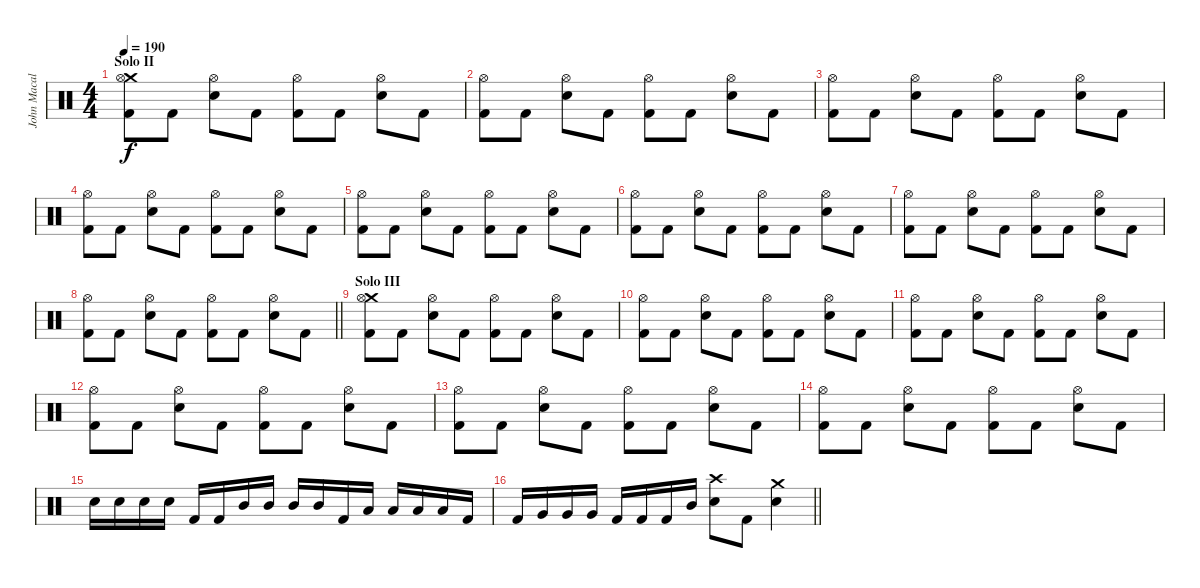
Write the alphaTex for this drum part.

\track ("John Macaluso" "John Macal") {instrument percussion}
\staff {score}
\articulation defaults
\ts (4 4)
\section ("" "Solo II")
\tempo 190
\clef neutral
\ks c
("Crash medium (hit)" "Hi-Hat (open)" "Kick (hit) 2").8{dy f} "Kick (hit) 2".8 ("Hi-Hat (open)" "Snare (hit) 2").8 "Kick (hit) 2".8 ("Hi-Hat (open)" "Kick (hit) 2").8 "Kick (hit) 2".8 ("Hi-Hat (open)" "Snare (hit) 2").8 "Kick (hit) 2".8 |
("Hi-Hat (open)" "Kick (hit) 2").8 "Kick (hit) 2".8 ("Hi-Hat (open)" "Snare (hit) 2").8 "Kick (hit) 2".8 ("Hi-Hat (open)" "Kick (hit) 2").8 "Kick (hit) 2".8 ("Hi-Hat (open)" "Snare (hit) 2").8 "Kick (hit) 2".8 |
("Hi-Hat (open)" "Kick (hit) 2").8 "Kick (hit) 2".8 ("Hi-Hat (open)" "Snare (hit) 2").8 "Kick (hit) 2".8 ("Hi-Hat (open)" "Kick (hit) 2").8 "Kick (hit) 2".8 ("Hi-Hat (open)" "Snare (hit) 2").8 "Kick (hit) 2".8 |
("Hi-Hat (open)" "Kick (hit) 2").8 "Kick (hit) 2".8 ("Hi-Hat (open)" "Snare (hit) 2").8 "Kick (hit) 2".8 ("Hi-Hat (open)" "Kick (hit) 2").8 "Kick (hit) 2".8 ("Hi-Hat (open)" "Snare (hit) 2").8 "Kick (hit) 2".8 |
("Hi-Hat (open)" "Kick (hit) 2").8 "Kick (hit) 2".8 ("Hi-Hat (open)" "Snare (hit) 2").8 "Kick (hit) 2".8 ("Hi-Hat (open)" "Kick (hit) 2").8 "Kick (hit) 2".8 ("Hi-Hat (open)" "Snare (hit) 2").8 "Kick (hit) 2".8 |
("Hi-Hat (open)" "Kick (hit) 2").8 "Kick (hit) 2".8 ("Hi-Hat (open)" "Snare (hit) 2").8 "Kick (hit) 2".8 ("Hi-Hat (open)" "Kick (hit) 2").8 "Kick (hit) 2".8 ("Hi-Hat (open)" "Snare (hit) 2").8 "Kick (hit) 2".8 |
("Hi-Hat (open)" "Kick (hit) 2").8 "Kick (hit) 2".8 ("Hi-Hat (open)" "Snare (hit) 2").8 "Kick (hit) 2".8 ("Hi-Hat (open)" "Kick (hit) 2").8 "Kick (hit) 2".8 ("Hi-Hat (open)" "Snare (hit) 2").8 "Kick (hit) 2".8 |
\barLineRight lightlight
("Hi-Hat (open)" "Kick (hit) 2").8 "Kick (hit) 2".8 ("Hi-Hat (open)" "Snare (hit) 2").8 "Kick (hit) 2".8 ("Hi-Hat (open)" "Kick (hit) 2").8 "Kick (hit) 2".8 ("Hi-Hat (open)" "Snare (hit) 2").8 "Kick (hit) 2".8 |
\section ("" "Solo III")
("Crash medium (hit)" "Hi-Hat (open)" "Kick (hit) 2").8 "Kick (hit) 2".8 ("Hi-Hat (open)" "Snare (hit) 2").8 "Kick (hit) 2".8 ("Hi-Hat (open)" "Kick (hit) 2").8 "Kick (hit) 2".8 ("Hi-Hat (open)" "Snare (hit) 2").8 "Kick (hit) 2".8 |
("Hi-Hat (open)" "Kick (hit) 2").8 "Kick (hit) 2".8 ("Hi-Hat (open)" "Snare (hit) 2").8 "Kick (hit) 2".8 ("Hi-Hat (open)" "Kick (hit) 2").8 "Kick (hit) 2".8 ("Hi-Hat (open)" "Snare (hit) 2").8 "Kick (hit) 2".8 |
("Hi-Hat (open)" "Kick (hit) 2").8 "Kick (hit) 2".8 ("Hi-Hat (open)" "Snare (hit) 2").8 "Kick (hit) 2".8 ("Hi-Hat (open)" "Kick (hit) 2").8 "Kick (hit) 2".8 ("Hi-Hat (open)" "Snare (hit) 2").8 "Kick (hit) 2".8 |
("Hi-Hat (open)" "Kick (hit) 2").8 "Kick (hit) 2".8 ("Hi-Hat (open)" "Snare (hit) 2").8 "Kick (hit) 2".8 ("Hi-Hat (open)" "Kick (hit) 2").8 "Kick (hit) 2".8 ("Hi-Hat (open)" "Snare (hit) 2").8 "Kick (hit) 2".8 |
("Hi-Hat (open)" "Kick (hit) 2").8 "Kick (hit) 2".8 ("Hi-Hat (open)" "Snare (hit) 2").8 "Kick (hit) 2".8 ("Hi-Hat (open)" "Kick (hit) 2").8 "Kick (hit) 2".8 ("Hi-Hat (open)" "Snare (hit) 2").8 "Kick (hit) 2".8 |
("Hi-Hat (open)" "Kick (hit) 2").8 "Kick (hit) 2".8 ("Hi-Hat (open)" "Snare (hit) 2").8 "Kick (hit) 2".8 ("Hi-Hat (open)" "Kick (hit) 2").8 "Kick (hit) 2".8 ("Hi-Hat (open)" "Snare (hit) 2").8 "Kick (hit) 2".8 |
"Snare (hit) 2".16 "Snare (hit) 2".16 "Snare (hit) 2".16 "Snare (hit) 2".16 "Kick (hit) 2".16 "Kick (hit) 2".16 "Mid Tom (hit)".16 "Mid Tom (hit)".16 "Mid Tom (hit)".16 "Mid Tom (hit)".16 "Kick (hit) 2".16 "Low Tom (hit)".16 "Low Tom (hit)".16 "Low Tom (hit)".16 "Low Tom (hit)".16 "Kick (hit) 2".16 |
\barLineRight lightlight "Kick (hit) 2".16 "Very Low Tom (hit)".16 "Very Low Tom (hit)".16 "Very Low Tom (hit)".16 "Kick (hit) 2".16 "Kick (hit) 2".16 "Kick (hit) 2".16 "Mid Tom (hit)".16
("Crash high (hit)" "Snare (hit) 2").8 "Kick (hit) 2".8 ("Crash medium (hit)" "Snare (hit) 2").4
